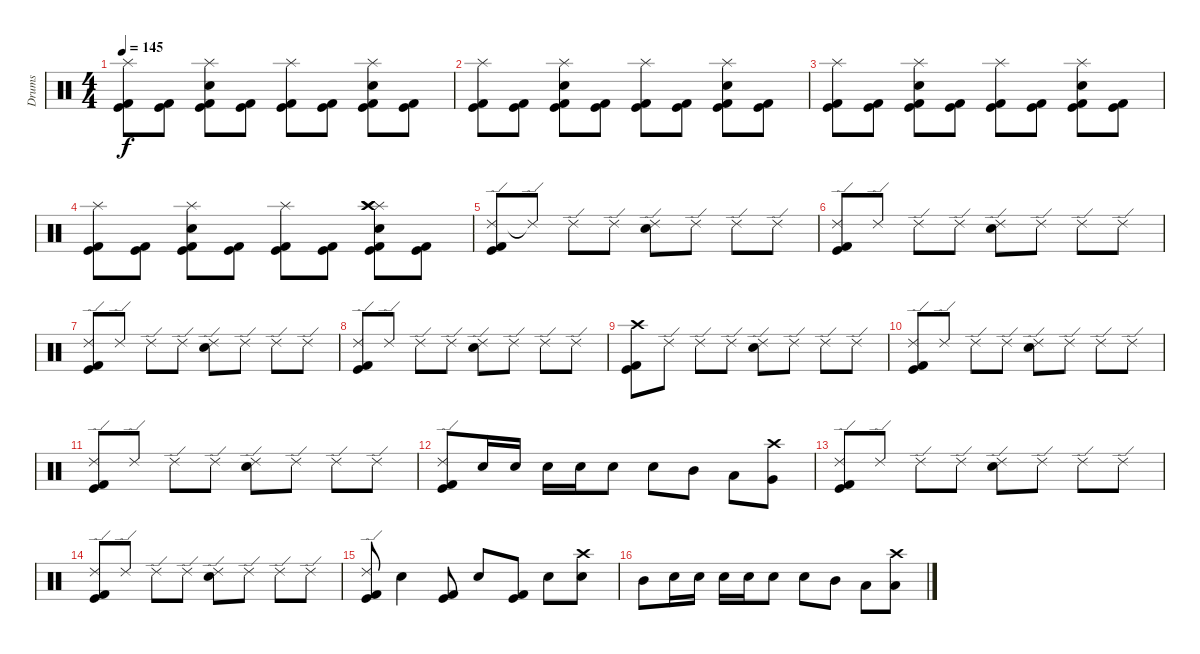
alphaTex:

\track ("Drums" "Drums") {instrument percussion}
\staff {score}
\articulation defaults
\ts (4 4)
\tempo 145
\clef neutral
\ks c
("Splash (hit)" "Kick (hit) 2" "Kick (hit)").8{dy f} ("Kick (hit) 2" "Kick (hit)").8 ("Splash (hit)" "Snare (hit) 2" "Kick (hit) 2" "Kick (hit)").8 ("Kick (hit) 2" "Kick (hit)").8 ("Splash (hit)" "Kick (hit) 2" "Kick (hit)").8 ("Kick (hit) 2" "Kick (hit)").8 ("Splash (hit)" "Snare (hit) 2" "Kick (hit) 2" "Kick (hit)").8 ("Kick (hit) 2" "Kick (hit)").8 |
("Splash (hit)" "Kick (hit) 2" "Kick (hit)").8 ("Kick (hit) 2" "Kick (hit)").8 ("Splash (hit)" "Snare (hit) 2" "Kick (hit) 2" "Kick (hit)").8 ("Kick (hit) 2" "Kick (hit)").8 ("Splash (hit)" "Kick (hit) 2" "Kick (hit)").8 ("Kick (hit) 2" "Kick (hit)").8 ("Splash (hit)" "Snare (hit) 2" "Kick (hit) 2" "Kick (hit)").8 ("Kick (hit) 2" "Kick (hit)").8 |
("Splash (hit)" "Kick (hit) 2" "Kick (hit)").8 ("Kick (hit) 2" "Kick (hit)").8 ("Splash (hit)" "Snare (hit) 2" "Kick (hit) 2" "Kick (hit)").8 ("Kick (hit) 2" "Kick (hit)").8 ("Splash (hit)" "Kick (hit) 2" "Kick (hit)").8 ("Kick (hit) 2" "Kick (hit)").8 ("Splash (hit)" "Snare (hit) 2" "Kick (hit) 2" "Kick (hit)").8 ("Kick (hit) 2" "Kick (hit)").8 |
("Splash (hit)" "Kick (hit) 2" "Kick (hit)").8 ("Kick (hit) 2" "Kick (hit)").8 ("Splash (hit)" "Snare (hit) 2" "Kick (hit) 2" "Kick (hit)").8 ("Kick (hit) 2" "Kick (hit)").8 ("Splash (hit)" "Kick (hit) 2" "Kick (hit)").8 ("Kick (hit) 2" "Kick (hit)").8 ("Splash (hit)" "Snare (hit) 2" "Kick (hit) 2" "Kick (hit)" "Crash high (hit)" "Crash high (hit)").8 ("Kick (hit) 2" "Kick (hit)").8 |
("Ride (edge) 2" "Kick (hit) 2" "Kick (hit)").8 "Ride (edge) 2"{t}.8 "Ride (edge) 2".8 "Ride (edge) 2".8 ("Ride (edge) 2" "Snare (hit) 2").8 "Ride (edge) 2".8 "Ride (edge) 2".8 "Ride (edge) 2".8 |
("Ride (edge) 2" "Kick (hit) 2" "Kick (hit)").8 "Ride (edge) 2".8 "Ride (edge) 2".8 "Ride (edge) 2".8 ("Ride (edge) 2" "Snare (hit) 2").8 "Ride (edge) 2".8 "Ride (edge) 2".8 "Ride (edge) 2".8 |
("Ride (edge) 2" "Kick (hit) 2" "Kick (hit)").8 "Ride (edge) 2".8 "Ride (edge) 2".8 "Ride (edge) 2".8 ("Ride (edge) 2" "Snare (hit) 2").8 "Ride (edge) 2".8 "Ride (edge) 2".8 "Ride (edge) 2".8 |
("Ride (edge) 2" "Kick (hit) 2" "Kick (hit)").8 "Ride (edge) 2".8 "Ride (edge) 2".8 "Ride (edge) 2".8 ("Ride (edge) 2" "Snare (hit) 2").8 "Ride (edge) 2".8 "Ride (edge) 2".8 "Ride (edge) 2".8 |
("Crash high (hit)" "Kick (hit) 2" "Kick (hit)").8 "Ride (edge) 2".8 "Ride (edge) 2".8 "Ride (edge) 2".8 ("Ride (edge) 2" "Snare (hit) 2").8 "Ride (edge) 2".8 "Ride (edge) 2".8 "Ride (edge) 2".8 |
("Ride (edge) 2" "Kick (hit) 2" "Kick (hit)").8 "Ride (edge) 2".8 "Ride (edge) 2".8 "Ride (edge) 2".8 ("Ride (edge) 2" "Snare (hit) 2").8 "Ride (edge) 2".8 "Ride (edge) 2".8 "Ride (edge) 2".8 |
("Ride (edge) 2" "Kick (hit) 2" "Kick (hit)").8 "Ride (edge) 2".8 "Ride (edge) 2".8 "Ride (edge) 2".8 ("Ride (edge) 2" "Snare (hit) 2").8 "Ride (edge) 2".8 "Ride (edge) 2".8 "Ride (edge) 2".8 |
("Ride (edge) 2" "Kick (hit) 2" "Kick (hit)").8 "Snare (hit) 2".16 "Snare (hit) 2".16 "Snare (hit) 2".16 "Snare (hit) 2".16 "Snare (hit) 2".8 "Snare (hit) 2".8 "Mid Tom (hit)".8 "Low Tom (hit)".8 ("Crash high (hit)" "Very Low Tom (hit)").8 |
("Ride (edge) 2" "Kick (hit) 2" "Kick (hit)").8 "Ride (edge) 2".8 "Ride (edge) 2".8 "Ride (edge) 2".8 ("Ride (edge) 2" "Snare (hit) 2").8 "Ride (edge) 2".8 "Ride (edge) 2".8 "Ride (edge) 2".8 |
("Ride (edge) 2" "Kick (hit) 2" "Kick (hit)").8 "Ride (edge) 2".8 "Ride (edge) 2".8 "Ride (edge) 2".8 ("Ride (edge) 2" "Snare (hit) 2").8 "Ride (edge) 2".8 "Ride (edge) 2".8 "Ride (edge) 2".8 |
("Ride (edge) 2" "Kick (hit) 2" "Kick (hit)").8 "Snare (hit) 2".4 ("Kick (hit) 2" "Kick (hit)").8 "Snare (hit) 2".8 ("Kick (hit) 2" "Kick (hit)").8 "Snare (hit) 2".8 ("Crash high (hit)" "Snare (hit) 2").8 |
"Mid Tom (hit)".8 "Snare (hit) 2".16 "Snare (hit) 2".16 "Snare (hit) 2".16 "Snare (hit) 2".16 "Snare (hit) 2".8 "Snare (hit) 2".8 "Mid Tom (hit)".8 "Low Tom (hit)".8 ("Crash high (hit)" "Low Floor Tom (hit)").8
